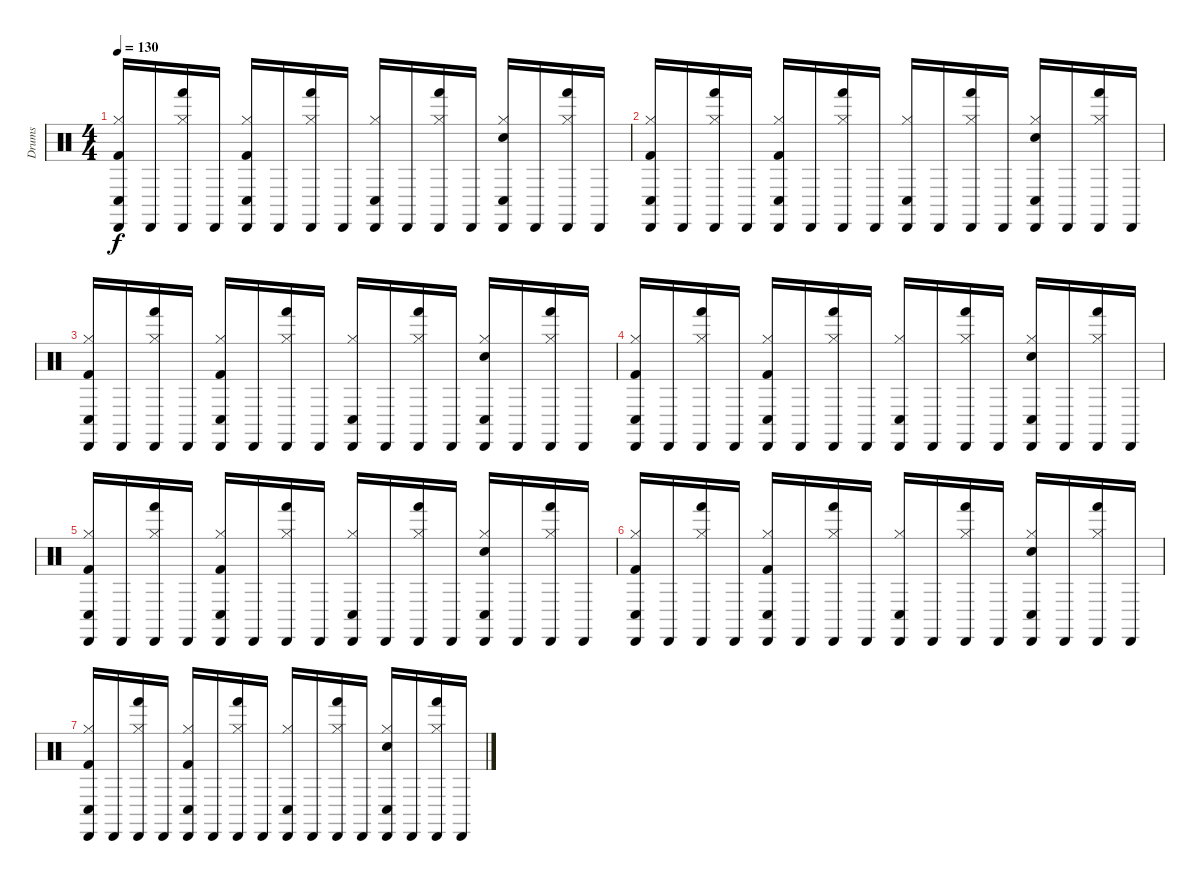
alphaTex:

\track ("Drums" "Drums") {instrument percussion}
\staff {score}
\articulation defaults
\ts (4 4)
\tempo 130
\clef neutral
\ks c
("Kick (hit) 2" "Cabasa (hit)" "Conga low (hit)" "Hi-Hat (closed)").16{dy f} "Cabasa (hit)".16 ("Hand (hit)" "Hi-Hat (closed)" "Cabasa (hit)").16 "Cabasa (hit)".16 ("Cabasa (hit)" "Hi-Hat (closed)" "Kick (hit) 2" "Conga low (hit)").16 "Cabasa (hit)".16 ("Hand (hit)" "Cabasa (hit)" "Hi-Hat (closed)").16 "Cabasa (hit)".16 ("Hi-Hat (closed)" "Conga low (hit)" "Cabasa (hit)").16 "Cabasa (hit)".16 ("Hand (hit)" "Cabasa (hit)" "Hi-Hat (closed)").16 "Cabasa (hit)".16 ("Hand Clap (hit)" "Cabasa (hit)" "Hi-Hat (closed)" "Conga low (hit)").16 "Cabasa (hit)".16 ("Cabasa (hit)" "Hi-Hat (closed)" "Hand (hit)").16 "Cabasa (hit)".16 |
("Kick (hit) 2" "Cabasa (hit)" "Conga low (hit)" "Hi-Hat (closed)").16 "Cabasa (hit)".16 ("Hand (hit)" "Hi-Hat (closed)" "Cabasa (hit)").16 "Cabasa (hit)".16 ("Cabasa (hit)" "Hi-Hat (closed)" "Kick (hit) 2" "Conga low (hit)").16 "Cabasa (hit)".16 ("Hand (hit)" "Cabasa (hit)" "Hi-Hat (closed)").16 "Cabasa (hit)".16 ("Hi-Hat (closed)" "Conga low (hit)" "Cabasa (hit)").16 "Cabasa (hit)".16 ("Hand (hit)" "Cabasa (hit)" "Hi-Hat (closed)").16 "Cabasa (hit)".16 ("Hand Clap (hit)" "Cabasa (hit)" "Hi-Hat (closed)" "Conga low (hit)").16 "Cabasa (hit)".16 ("Cabasa (hit)" "Hi-Hat (closed)" "Hand (hit)").16 "Cabasa (hit)".16 |
("Kick (hit) 2" "Cabasa (hit)" "Conga low (hit)" "Hi-Hat (closed)").16 "Cabasa (hit)".16 ("Hand (hit)" "Hi-Hat (closed)" "Cabasa (hit)").16 "Cabasa (hit)".16 ("Cabasa (hit)" "Hi-Hat (closed)" "Kick (hit) 2" "Conga low (hit)").16 "Cabasa (hit)".16 ("Hand (hit)" "Cabasa (hit)" "Hi-Hat (closed)").16 "Cabasa (hit)".16 ("Hi-Hat (closed)" "Conga low (hit)" "Cabasa (hit)").16 "Cabasa (hit)".16 ("Hand (hit)" "Cabasa (hit)" "Hi-Hat (closed)").16 "Cabasa (hit)".16 ("Hand Clap (hit)" "Cabasa (hit)" "Hi-Hat (closed)" "Conga low (hit)").16 "Cabasa (hit)".16 ("Cabasa (hit)" "Hi-Hat (closed)" "Hand (hit)").16 "Cabasa (hit)".16 |
("Kick (hit) 2" "Cabasa (hit)" "Conga low (hit)" "Hi-Hat (closed)").16 "Cabasa (hit)".16 ("Hand (hit)" "Hi-Hat (closed)" "Cabasa (hit)").16 "Cabasa (hit)".16 ("Cabasa (hit)" "Hi-Hat (closed)" "Kick (hit) 2" "Conga low (hit)").16 "Cabasa (hit)".16 ("Hand (hit)" "Cabasa (hit)" "Hi-Hat (closed)").16 "Cabasa (hit)".16 ("Hi-Hat (closed)" "Conga low (hit)" "Cabasa (hit)").16 "Cabasa (hit)".16 ("Hand (hit)" "Cabasa (hit)" "Hi-Hat (closed)").16 "Cabasa (hit)".16 ("Hand Clap (hit)" "Cabasa (hit)" "Hi-Hat (closed)" "Conga low (hit)").16 "Cabasa (hit)".16 ("Cabasa (hit)" "Hi-Hat (closed)" "Hand (hit)").16 "Cabasa (hit)".16 |
("Kick (hit) 2" "Cabasa (hit)" "Conga low (hit)" "Hi-Hat (closed)").16 "Cabasa (hit)".16 ("Hand (hit)" "Hi-Hat (closed)" "Cabasa (hit)").16 "Cabasa (hit)".16 ("Cabasa (hit)" "Hi-Hat (closed)" "Kick (hit) 2" "Conga low (hit)").16 "Cabasa (hit)".16 ("Hand (hit)" "Cabasa (hit)" "Hi-Hat (closed)").16 "Cabasa (hit)".16 ("Hi-Hat (closed)" "Conga low (hit)" "Cabasa (hit)").16 "Cabasa (hit)".16 ("Hand (hit)" "Cabasa (hit)" "Hi-Hat (closed)").16 "Cabasa (hit)".16 ("Hand Clap (hit)" "Cabasa (hit)" "Hi-Hat (closed)" "Conga low (hit)").16 "Cabasa (hit)".16 ("Cabasa (hit)" "Hi-Hat (closed)" "Hand (hit)").16 "Cabasa (hit)".16 |
("Kick (hit) 2" "Cabasa (hit)" "Conga low (hit)" "Hi-Hat (closed)").16 "Cabasa (hit)".16 ("Hand (hit)" "Hi-Hat (closed)" "Cabasa (hit)").16 "Cabasa (hit)".16 ("Cabasa (hit)" "Hi-Hat (closed)" "Kick (hit) 2" "Conga low (hit)").16 "Cabasa (hit)".16 ("Hand (hit)" "Cabasa (hit)" "Hi-Hat (closed)").16 "Cabasa (hit)".16 ("Hi-Hat (closed)" "Conga low (hit)" "Cabasa (hit)").16 "Cabasa (hit)".16 ("Hand (hit)" "Cabasa (hit)" "Hi-Hat (closed)").16 "Cabasa (hit)".16 ("Hand Clap (hit)" "Cabasa (hit)" "Hi-Hat (closed)" "Conga low (hit)").16 "Cabasa (hit)".16 ("Cabasa (hit)" "Hi-Hat (closed)" "Hand (hit)").16 "Cabasa (hit)".16 |
("Kick (hit) 2" "Cabasa (hit)" "Conga low (hit)" "Hi-Hat (closed)").16 "Cabasa (hit)".16 ("Hand (hit)" "Hi-Hat (closed)" "Cabasa (hit)").16 "Cabasa (hit)".16 ("Cabasa (hit)" "Hi-Hat (closed)" "Kick (hit) 2" "Conga low (hit)").16 "Cabasa (hit)".16 ("Hand (hit)" "Cabasa (hit)" "Hi-Hat (closed)").16 "Cabasa (hit)".16 ("Hi-Hat (closed)" "Conga low (hit)" "Cabasa (hit)").16 "Cabasa (hit)".16 ("Hand (hit)" "Cabasa (hit)" "Hi-Hat (closed)").16 "Cabasa (hit)".16 ("Hand Clap (hit)" "Cabasa (hit)" "Hi-Hat (closed)" "Conga low (hit)").16 "Cabasa (hit)".16 ("Cabasa (hit)" "Hi-Hat (closed)" "Hand (hit)").16 "Cabasa (hit)".16
